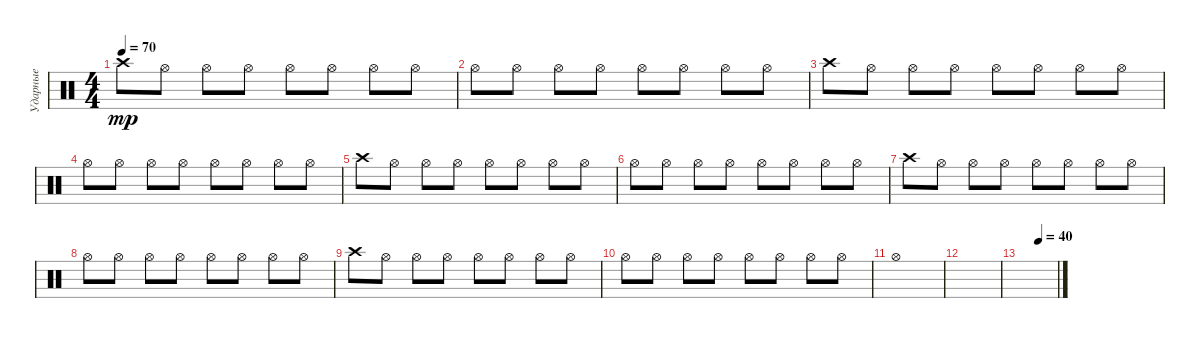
\track ("Ударные" "Ударные") {instrument percussion}
\staff {score}
\articulation defaults
\ts (4 4)
\tempo 70
\clef neutral
\ks c "Crash high (hit)".8{dy mp} "Hi-Hat (open)".8 "Hi-Hat (open)".8 "Hi-Hat (open)".8 "Hi-Hat (open)".8 "Hi-Hat (open)".8 "Hi-Hat (open)".8 "Hi-Hat (open)".8
|
"Hi-Hat (open)".8 "Hi-Hat (open)".8 "Hi-Hat (open)".8 "Hi-Hat (open)".8 "Hi-Hat (open)".8 "Hi-Hat (open)".8 "Hi-Hat (open)".8 "Hi-Hat (open)".8 |
"Crash high (hit)".8 "Hi-Hat (open)".8 "Hi-Hat (open)".8 "Hi-Hat (open)".8 "Hi-Hat (open)".8 "Hi-Hat (open)".8 "Hi-Hat (open)".8 "Hi-Hat (open)".8 |
"Hi-Hat (open)".8 "Hi-Hat (open)".8 "Hi-Hat (open)".8 "Hi-Hat (open)".8 "Hi-Hat (open)".8 "Hi-Hat (open)".8 "Hi-Hat (open)".8 "Hi-Hat (open)".8 |
"Crash high (hit)".8 "Hi-Hat (open)".8 "Hi-Hat (open)".8 "Hi-Hat (open)".8 "Hi-Hat (open)".8 "Hi-Hat (open)".8 "Hi-Hat (open)".8 "Hi-Hat (open)".8 |
"Hi-Hat (open)".8 "Hi-Hat (open)".8 "Hi-Hat (open)".8 "Hi-Hat (open)".8 "Hi-Hat (open)".8 "Hi-Hat (open)".8 "Hi-Hat (open)".8 "Hi-Hat (open)".8 |
"Crash high (hit)".8 "Hi-Hat (open)".8 "Hi-Hat (open)".8 "Hi-Hat (open)".8 "Hi-Hat (open)".8 "Hi-Hat (open)".8 "Hi-Hat (open)".8 "Hi-Hat (open)".8 |
"Hi-Hat (open)".8 "Hi-Hat (open)".8 "Hi-Hat (open)".8 "Hi-Hat (open)".8 "Hi-Hat (open)".8 "Hi-Hat (open)".8 "Hi-Hat (open)".8 "Hi-Hat (open)".8 |
"Crash high (hit)".8 "Hi-Hat (open)".8 "Hi-Hat (open)".8 "Hi-Hat (open)".8 "Hi-Hat (open)".8 "Hi-Hat (open)".8 "Hi-Hat (open)".8 "Hi-Hat (open)".8 |
"Hi-Hat (open)".8 "Hi-Hat (open)".8 "Hi-Hat (open)".8 "Hi-Hat (open)".8 "Hi-Hat (open)".8 "Hi-Hat (open)".8 "Hi-Hat (open)".8 "Hi-Hat (open)".8 |
"Hi-Hat (open)".1 |
|
\tempo (40 0.5)
